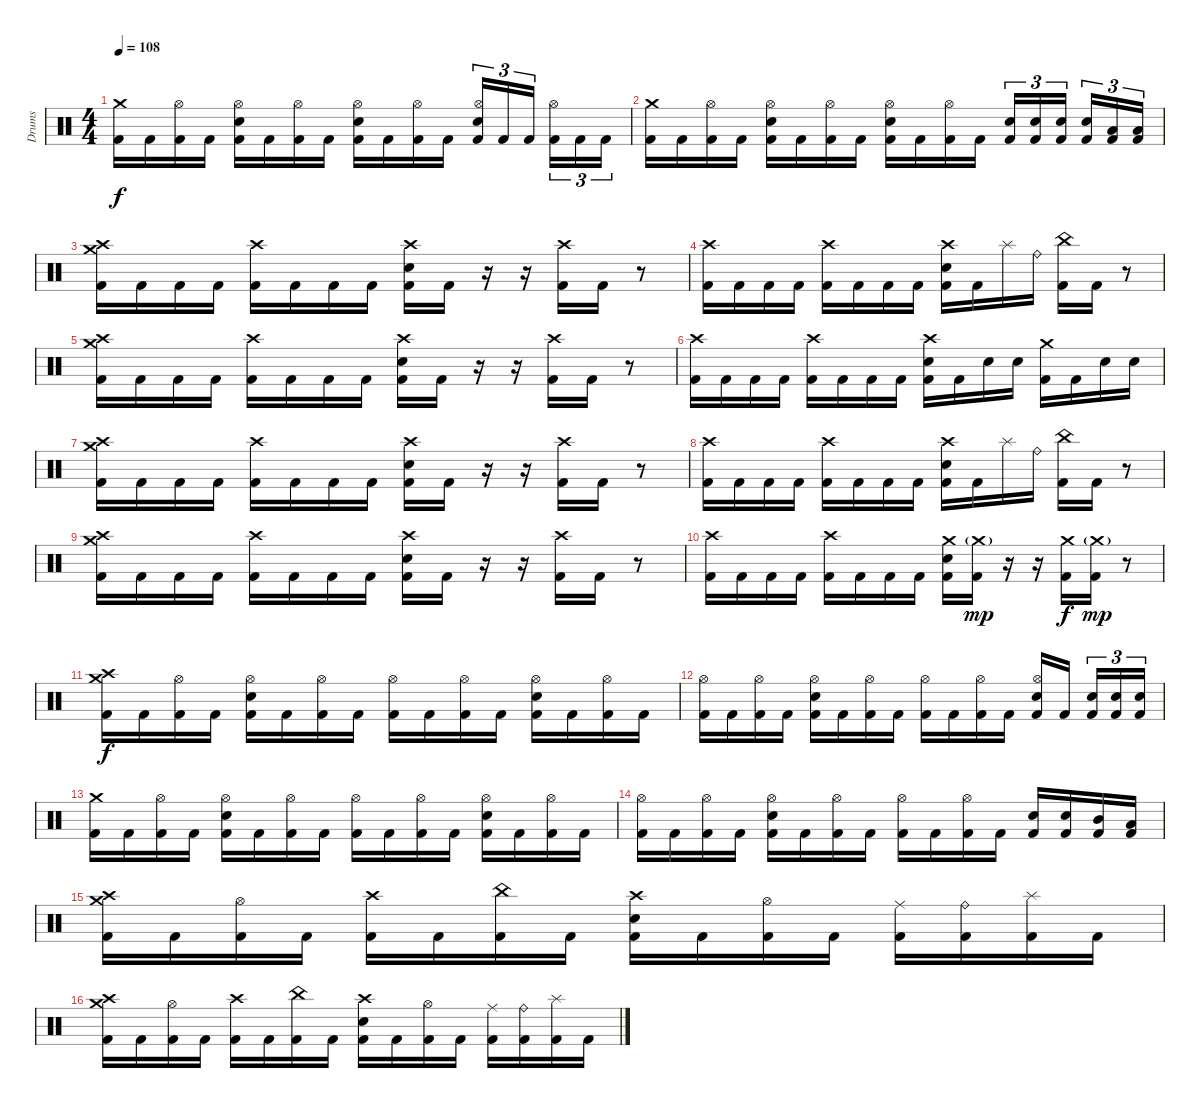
\track ("Drums" "Drums") {instrument percussion}
\staff {score}
\articulation defaults
\ts (4 4)
\tempo 108
\clef neutral
\ks c
("Crash medium (hit)" "Kick (hit) 2").16{dy f} "Kick (hit) 2".16 ("Hi-Hat (open)" "Kick (hit) 2").16 "Kick (hit) 2".16 ("Hi-Hat (open)" "Electric Snare (hit)" "Kick (hit) 2").16 "Kick (hit) 2".16 ("Hi-Hat (open)" "Kick (hit) 2").16 "Kick (hit) 2".16 ("Hi-Hat (open)" "Electric Snare (hit)" "Kick (hit) 2").16 "Kick (hit) 2".16 ("Hi-Hat (open)" "Kick (hit) 2").16 "Kick (hit) 2".16 ("Hi-Hat (open)" "Electric Snare (hit)" "Kick (hit) 2").16{tu (3 2)} "Kick (hit) 2".16{tu (3 2)} "Kick (hit) 2".16{tu (3 2) beam splitsecondary} ("Hi-Hat (open)" "Kick (hit) 2").16{tu (3 2)} "Kick (hit) 2".16{tu (3 2)} "Kick (hit) 2".16{tu (3 2)} |
("Crash medium (hit)" "Kick (hit) 2").16 "Kick (hit) 2".16 ("Hi-Hat (open)" "Kick (hit) 2").16 "Kick (hit) 2".16 ("Hi-Hat (open)" "Electric Snare (hit)" "Kick (hit) 2").16 "Kick (hit) 2".16 ("Hi-Hat (open)" "Kick (hit) 2").16 "Kick (hit) 2".16 ("Hi-Hat (open)" "Electric Snare (hit)" "Kick (hit) 2").16 "Kick (hit) 2".16 ("Hi-Hat (open)" "Kick (hit) 2").16 "Kick (hit) 2".16 ("Electric Snare (hit)" "Kick (hit) 2").16{tu (3 2)} ("Electric Snare (hit)" "Kick (hit) 2").16{tu (3 2)} ("Electric Snare (hit)" "Kick (hit) 2").16{tu (3 2) beam splitsecondary} ("Electric Snare (hit)" "Kick (hit) 2").16{tu (3 2)} ("Low Tom (hit)" "Kick (hit) 2").16{tu (3 2)} ("Low Tom (hit)" "Kick (hit) 2").16{tu (3 2)} |
("Crash medium (hit)" "Crash high (hit)" "Kick (hit) 2").16 "Kick (hit) 2".16 "Kick (hit) 2".16 "Kick (hit) 2".16 ("Crash high (hit)" "Kick (hit) 2").16 "Kick (hit) 2".16 "Kick (hit) 2".16 "Kick (hit) 2".16 ("Crash high (hit)" "Electric Snare (hit)" "Kick (hit) 2").16 "Kick (hit) 2".16 r.16 r.16 ("Crash high (hit)" "Kick (hit) 2").16 "Kick (hit) 2".16 r.8 |
("Crash high (hit)" "Kick (hit) 2").16 "Kick (hit) 2".16 "Kick (hit) 2".16 "Kick (hit) 2".16 ("Crash high (hit)" "Kick (hit) 2").16 "Kick (hit) 2".16 "Kick (hit) 2".16 "Kick (hit) 2".16 ("Crash high (hit)" "Electric Snare (hit)" "Kick (hit) 2").16 "Kick (hit) 2".16 "Splash (hit)".16 "Ride (bell)".16 ("China (hit)" "Kick (hit) 2").16 "Kick (hit) 2".16 r.8 |
("Crash medium (hit)" "Crash high (hit)" "Kick (hit) 2").16 "Kick (hit) 2".16 "Kick (hit) 2".16 "Kick (hit) 2".16 ("Crash high (hit)" "Kick (hit) 2").16 "Kick (hit) 2".16 "Kick (hit) 2".16 "Kick (hit) 2".16 ("Crash high (hit)" "Electric Snare (hit)" "Kick (hit) 2").16 "Kick (hit) 2".16 r.16 r.16 ("Crash high (hit)" "Kick (hit) 2").16 "Kick (hit) 2".16 r.8 |
("Crash high (hit)" "Kick (hit) 2").16 "Kick (hit) 2".16 "Kick (hit) 2".16 "Kick (hit) 2".16 ("Crash high (hit)" "Kick (hit) 2").16 "Kick (hit) 2".16 "Kick (hit) 2".16 "Kick (hit) 2".16 ("Crash high (hit)" "Electric Snare (hit)" "Kick (hit) 2").16 "Kick (hit) 2".16 "Electric Snare (hit)".16 "Electric Snare (hit)".16 ("Crash medium (hit)" "Kick (hit) 2").16 "Kick (hit) 2".16 "Electric Snare (hit)".16 "Electric Snare (hit)".16 |
("Crash medium (hit)" "Crash high (hit)" "Kick (hit) 2").16 "Kick (hit) 2".16 "Kick (hit) 2".16 "Kick (hit) 2".16 ("Crash high (hit)" "Kick (hit) 2").16 "Kick (hit) 2".16 "Kick (hit) 2".16 "Kick (hit) 2".16 ("Crash high (hit)" "Electric Snare (hit)" "Kick (hit) 2").16 "Kick (hit) 2".16 r.16 r.16 ("Crash high (hit)" "Kick (hit) 2").16 "Kick (hit) 2".16 r.8 |
("Crash high (hit)" "Kick (hit) 2").16 "Kick (hit) 2".16 "Kick (hit) 2".16 "Kick (hit) 2".16 ("Crash high (hit)" "Kick (hit) 2").16 "Kick (hit) 2".16 "Kick (hit) 2".16 "Kick (hit) 2".16 ("Crash high (hit)" "Electric Snare (hit)" "Kick (hit) 2").16 "Kick (hit) 2".16 "Splash (hit)".16 "Ride (bell)".16 ("China (hit)" "Kick (hit) 2").16 "Kick (hit) 2".16 r.8 |
("Crash medium (hit)" "Crash high (hit)" "Kick (hit) 2").16 "Kick (hit) 2".16 "Kick (hit) 2".16 "Kick (hit) 2".16 ("Crash high (hit)" "Kick (hit) 2").16 "Kick (hit) 2".16 "Kick (hit) 2".16 "Kick (hit) 2".16 ("Crash high (hit)" "Electric Snare (hit)" "Kick (hit) 2").16 "Kick (hit) 2".16 r.16 r.16 ("Crash high (hit)" "Kick (hit) 2").16 "Kick (hit) 2".16 r.8 |
("Crash high (hit)" "Kick (hit) 2").16 "Kick (hit) 2".16 "Kick (hit) 2".16 "Kick (hit) 2".16 ("Crash high (hit)" "Kick (hit) 2").16 "Kick (hit) 2".16 "Kick (hit) 2".16 "Kick (hit) 2".16 ("Crash medium (hit)" "Electric Snare (hit)" "Kick (hit) 2").16 ("Crash medium (hit)"{g} "Kick (hit) 2").16{dy mp} r.16 r.16 ("Crash medium (hit)" "Kick (hit) 2").16{dy f} ("Crash medium (hit)"{g} "Kick (hit) 2").16{dy mp} r.8 |
("Crash medium (hit)" "Crash high (hit)" "Kick (hit) 2").16{dy f} "Kick (hit) 2".16 ("Hi-Hat (open)" "Kick (hit) 2").16 "Kick (hit) 2".16 ("Hi-Hat (open)" "Electric Snare (hit)" "Kick (hit) 2").16 "Kick (hit) 2".16 ("Hi-Hat (open)" "Kick (hit) 2").16 "Kick (hit) 2".16 ("Hi-Hat (open)" "Kick (hit) 2").16 "Kick (hit) 2".16 ("Hi-Hat (open)" "Kick (hit) 2").16 "Kick (hit) 2".16 ("Hi-Hat (open)" "Electric Snare (hit)" "Kick (hit) 2").16 "Kick (hit) 2".16 ("Hi-Hat (open)" "Kick (hit) 2").16 "Kick (hit) 2".16 |
("Hi-Hat (open)" "Kick (hit) 2").16 "Kick (hit) 2".16 ("Hi-Hat (open)" "Kick (hit) 2").16 "Kick (hit) 2".16 ("Hi-Hat (open)" "Electric Snare (hit)" "Kick (hit) 2").16 "Kick (hit) 2".16 ("Hi-Hat (open)" "Kick (hit) 2").16 "Kick (hit) 2".16 ("Hi-Hat (open)" "Kick (hit) 2").16 "Kick (hit) 2".16 ("Hi-Hat (open)" "Kick (hit) 2").16 "Kick (hit) 2".16 ("Hi-Hat (open)" "Electric Snare (hit)" "Kick (hit) 2").16 "Kick (hit) 2".16{beam splitsecondary} ("Electric Snare (hit)" "Kick (hit) 2").16{tu (3 2)} ("Electric Snare (hit)" "Kick (hit) 2").16{tu (3 2)} ("Electric Snare (hit)" "Kick (hit) 2").16{tu (3 2)} |
("Crash medium (hit)" "Kick (hit) 2").16 "Kick (hit) 2".16 ("Hi-Hat (open)" "Kick (hit) 2").16 "Kick (hit) 2".16 ("Hi-Hat (open)" "Electric Snare (hit)" "Kick (hit) 2").16 "Kick (hit) 2".16 ("Hi-Hat (open)" "Kick (hit) 2").16 "Kick (hit) 2".16 ("Hi-Hat (open)" "Kick (hit) 2").16 "Kick (hit) 2".16 ("Hi-Hat (open)" "Kick (hit) 2").16 "Kick (hit) 2".16 ("Hi-Hat (open)" "Electric Snare (hit)" "Kick (hit) 2").16 "Kick (hit) 2".16 ("Hi-Hat (open)" "Kick (hit) 2").16 "Kick (hit) 2".16 |
("Hi-Hat (open)" "Kick (hit) 2").16 "Kick (hit) 2".16 ("Hi-Hat (open)" "Kick (hit) 2").16 "Kick (hit) 2".16 ("Hi-Hat (open)" "Electric Snare (hit)" "Kick (hit) 2").16 "Kick (hit) 2".16 ("Hi-Hat (open)" "Kick (hit) 2").16 "Kick (hit) 2".16 ("Hi-Hat (open)" "Kick (hit) 2").16 "Kick (hit) 2".16 ("Hi-Hat (open)" "Kick (hit) 2").16 "Kick (hit) 2".16 ("Electric Snare (hit)" "Kick (hit) 2").16 ("Electric Snare (hit)" "Kick (hit) 2").16 ("Mid Tom (hit)" "Kick (hit) 2").16 ("Low Tom (hit)" "Kick (hit) 2").16 |
("Crash medium (hit)" "Crash high (hit)" "Kick (hit) 2").16 "Kick (hit) 2".16 ("Hi-Hat (open)" "Kick (hit) 2").16 "Kick (hit) 2".16 ("Crash high (hit)" "Kick (hit) 2").16 "Kick (hit) 2".16 ("China (hit)" "Kick (hit) 2").16 "Kick (hit) 2".16 ("Crash high (hit)" "Electric Snare (hit)" "Kick (hit) 2").16 "Kick (hit) 2".16 ("Hi-Hat (open)" "Kick (hit) 2").16 "Kick (hit) 2".16 ("Ride (middle)" "Kick (hit) 2").16 ("Ride (bell)" "Kick (hit) 2").16 ("Splash (hit)" "Kick (hit) 2").16 "Kick (hit) 2".16 |
("Crash medium (hit)" "Crash high (hit)" "Kick (hit) 2").16 "Kick (hit) 2".16 ("Hi-Hat (open)" "Kick (hit) 2").16 "Kick (hit) 2".16 ("Crash high (hit)" "Kick (hit) 2").16 "Kick (hit) 2".16 ("China (hit)" "Kick (hit) 2").16 "Kick (hit) 2".16 ("Crash high (hit)" "Electric Snare (hit)" "Kick (hit) 2").16 "Kick (hit) 2".16 ("Hi-Hat (open)" "Kick (hit) 2").16 "Kick (hit) 2".16 ("Ride (middle)" "Kick (hit) 2").16 ("Ride (bell)" "Kick (hit) 2").16 ("Splash (hit)" "Kick (hit) 2").16 "Kick (hit) 2".16
